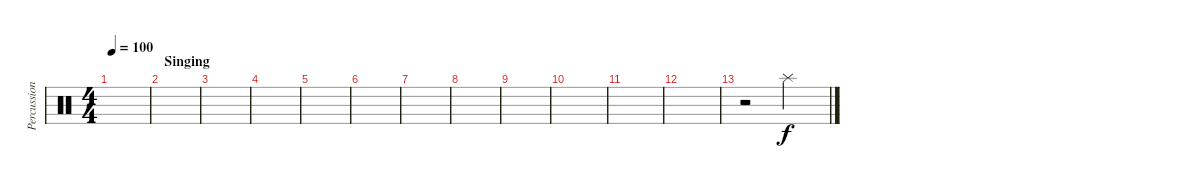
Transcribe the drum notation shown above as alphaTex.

\track ("Percussion" "Percussion") {instrument percussion}
\staff {score}
\articulation defaults
\ts (4 4)
\tempo 100
\clef neutral
\ks c
|
\section ("" "Singing")
|
|
|
|
|
|
|
|
|
|
|
r.2 "Splash (hit)".2
